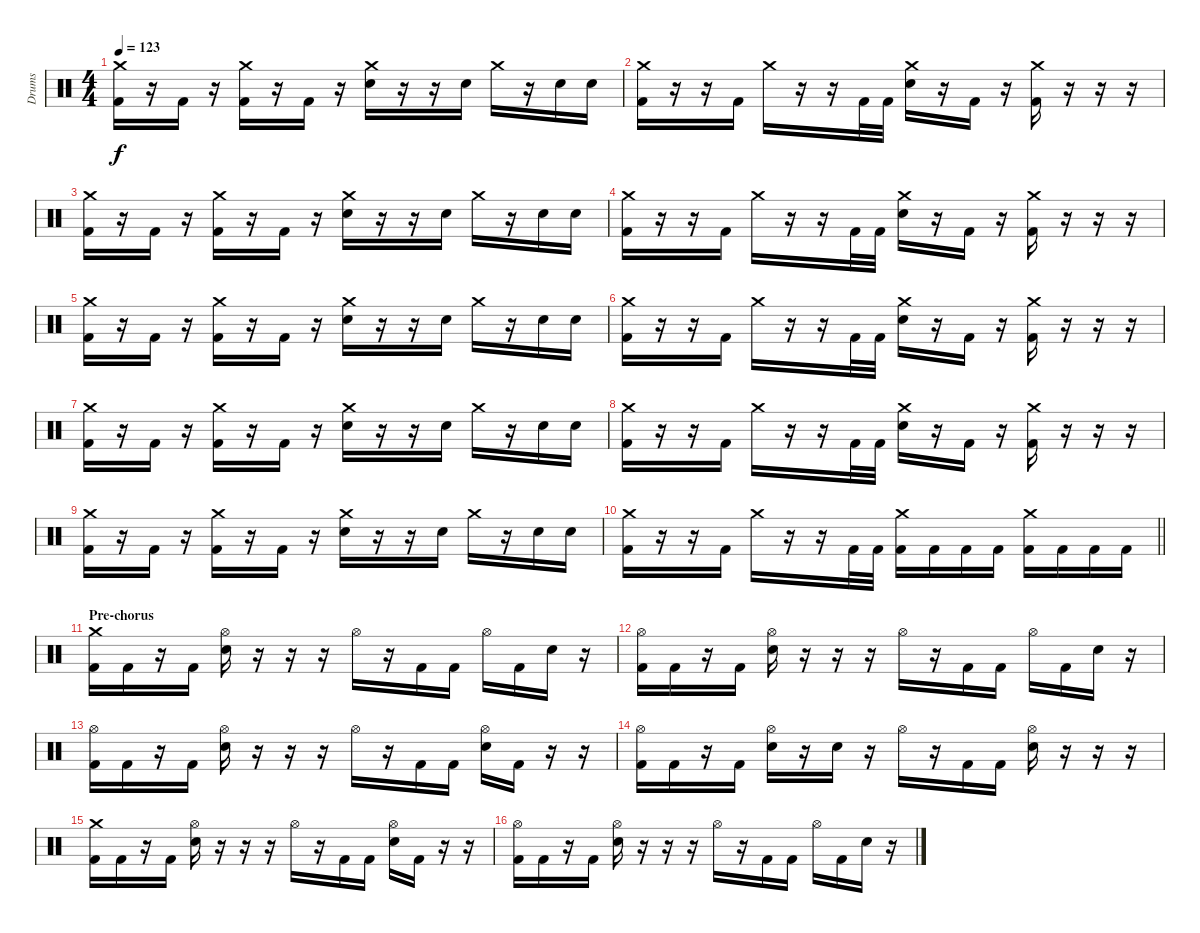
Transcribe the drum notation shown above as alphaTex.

\track ("Drums" "Drums") {instrument percussion}
\staff {score}
\articulation defaults
\ts (4 4)
\tempo 123
\clef neutral
\ks c
("Crash medium (hit)" "Kick (hit) 2").16{dy f} r.16 "Kick (hit) 2".16 r.16 ("Crash medium (hit)" "Kick (hit) 2").16 r.16 "Kick (hit) 2".16 r.16 ("Crash medium (hit)" "Electric Snare (hit)").16 r.16 r.16 "Electric Snare (hit)".16 "Crash medium (hit)".16 r.16 "Electric Snare (hit)".16 "Electric Snare (hit)".16 |
("Crash medium (hit)" "Kick (hit) 2").16 r.16 r.16 "Kick (hit) 2".16 "Crash medium (hit)".16 r.16 r.16 "Kick (hit) 2".32 "Kick (hit) 2".32 ("Crash medium (hit)" "Electric Snare (hit)").16 r.16 "Kick (hit) 2".16 r.16 ("Crash medium (hit)" "Kick (hit) 2").16 r.16 r.16 r.16 |
("Crash medium (hit)" "Kick (hit) 2").16 r.16 "Kick (hit) 2".16 r.16 ("Crash medium (hit)" "Kick (hit) 2").16 r.16 "Kick (hit) 2".16 r.16 ("Crash medium (hit)" "Electric Snare (hit)").16 r.16 r.16 "Electric Snare (hit)".16 "Crash medium (hit)".16 r.16 "Electric Snare (hit)".16 "Electric Snare (hit)".16 |
("Crash medium (hit)" "Kick (hit) 2").16 r.16 r.16 "Kick (hit) 2".16 "Crash medium (hit)".16 r.16 r.16 "Kick (hit) 2".32 "Kick (hit) 2".32 ("Crash medium (hit)" "Electric Snare (hit)").16 r.16 "Kick (hit) 2".16 r.16 ("Crash medium (hit)" "Kick (hit) 2").16 r.16 r.16 r.16 |
("Crash medium (hit)" "Kick (hit) 2").16 r.16 "Kick (hit) 2".16 r.16 ("Crash medium (hit)" "Kick (hit) 2").16 r.16 "Kick (hit) 2".16 r.16 ("Crash medium (hit)" "Electric Snare (hit)").16 r.16 r.16 "Electric Snare (hit)".16 "Crash medium (hit)".16 r.16 "Electric Snare (hit)".16 "Electric Snare (hit)".16 |
("Crash medium (hit)" "Kick (hit) 2").16 r.16 r.16 "Kick (hit) 2".16 "Crash medium (hit)".16 r.16 r.16 "Kick (hit) 2".32 "Kick (hit) 2".32 ("Crash medium (hit)" "Electric Snare (hit)").16 r.16 "Kick (hit) 2".16 r.16 ("Crash medium (hit)" "Kick (hit) 2").16 r.16 r.16 r.16 |
("Crash medium (hit)" "Kick (hit) 2").16 r.16 "Kick (hit) 2".16 r.16 ("Crash medium (hit)" "Kick (hit) 2").16 r.16 "Kick (hit) 2".16 r.16 ("Crash medium (hit)" "Electric Snare (hit)").16 r.16 r.16 "Electric Snare (hit)".16 "Crash medium (hit)".16 r.16 "Electric Snare (hit)".16 "Electric Snare (hit)".16 |
("Crash medium (hit)" "Kick (hit) 2").16 r.16 r.16 "Kick (hit) 2".16 "Crash medium (hit)".16 r.16 r.16 "Kick (hit) 2".32 "Kick (hit) 2".32 ("Crash medium (hit)" "Electric Snare (hit)").16 r.16 "Kick (hit) 2".16 r.16 ("Crash medium (hit)" "Kick (hit) 2").16 r.16 r.16 r.16 |
("Crash medium (hit)" "Kick (hit) 2").16 r.16 "Kick (hit) 2".16 r.16 ("Crash medium (hit)" "Kick (hit) 2").16 r.16 "Kick (hit) 2".16 r.16 ("Crash medium (hit)" "Electric Snare (hit)").16 r.16 r.16 "Electric Snare (hit)".16 "Crash medium (hit)".16 r.16 "Electric Snare (hit)".16 "Electric Snare (hit)".16 |
\barLineRight lightlight
("Crash medium (hit)" "Kick (hit) 2").16 r.16 r.16 "Kick (hit) 2".16 "Crash medium (hit)".16 r.16 r.16 "Kick (hit) 2".32 "Kick (hit) 2".32 ("Crash medium (hit)" "Kick (hit) 2").16 "Kick (hit) 2".16 "Kick (hit) 2".16 "Kick (hit) 2".16 ("Crash medium (hit)" "Kick (hit) 2").16 "Kick (hit) 2".16 "Kick (hit) 2".16 "Kick (hit) 2".16 |
\section ("" "Pre-chorus")
("Crash medium (hit)" "Kick (hit) 2").16 "Kick (hit) 2".16 r.16 "Kick (hit) 2".16 ("Hi-Hat (open)" "Electric Snare (hit)").16 r.16 r.16 r.16 "Hi-Hat (open)".16 r.16 "Kick (hit) 2".16 "Kick (hit) 2".16 "Hi-Hat (open)".16 "Kick (hit) 2".16 "Electric Snare (hit)".16 r.16 |
("Hi-Hat (open)" "Kick (hit) 2").16 "Kick (hit) 2".16 r.16 "Kick (hit) 2".16 ("Hi-Hat (open)" "Electric Snare (hit)").16 r.16 r.16 r.16 "Hi-Hat (open)".16 r.16 "Kick (hit) 2".16 "Kick (hit) 2".16 "Hi-Hat (open)".16 "Kick (hit) 2".16 "Electric Snare (hit)".16 r.16 |
("Hi-Hat (open)" "Kick (hit) 2").16 "Kick (hit) 2".16 r.16 "Kick (hit) 2".16 ("Hi-Hat (open)" "Electric Snare (hit)").16 r.16 r.16 r.16 "Hi-Hat (open)".16 r.16 "Kick (hit) 2".16 "Kick (hit) 2".16 ("Hi-Hat (open)" "Electric Snare (hit)").16 "Kick (hit) 2".16 r.16 r.16 |
("Hi-Hat (open)" "Kick (hit) 2").16 "Kick (hit) 2".16 r.16 "Kick (hit) 2".16 ("Hi-Hat (open)" "Electric Snare (hit)").16 r.16 "Electric Snare (hit)".16 r.16 "Hi-Hat (open)".16 r.16 "Kick (hit) 2".16 "Kick (hit) 2".16 ("Hi-Hat (open)" "Electric Snare (hit)").16 r.16 r.16 r.16 |
("Crash medium (hit)" "Kick (hit) 2").16 "Kick (hit) 2".16 r.16 "Kick (hit) 2".16 ("Hi-Hat (open)" "Electric Snare (hit)").16 r.16 r.16 r.16 "Hi-Hat (open)".16 r.16 "Kick (hit) 2".16 "Kick (hit) 2".16 ("Hi-Hat (open)" "Electric Snare (hit)").16 "Kick (hit) 2".16 r.16 r.16 |
("Hi-Hat (open)" "Kick (hit) 2").16 "Kick (hit) 2".16 r.16 "Kick (hit) 2".16 ("Hi-Hat (open)" "Electric Snare (hit)").16 r.16 r.16 r.16 "Hi-Hat (open)".16 r.16 "Kick (hit) 2".16 "Kick (hit) 2".16 "Hi-Hat (open)".16 "Kick (hit) 2".16 "Electric Snare (hit)".16 r.16
